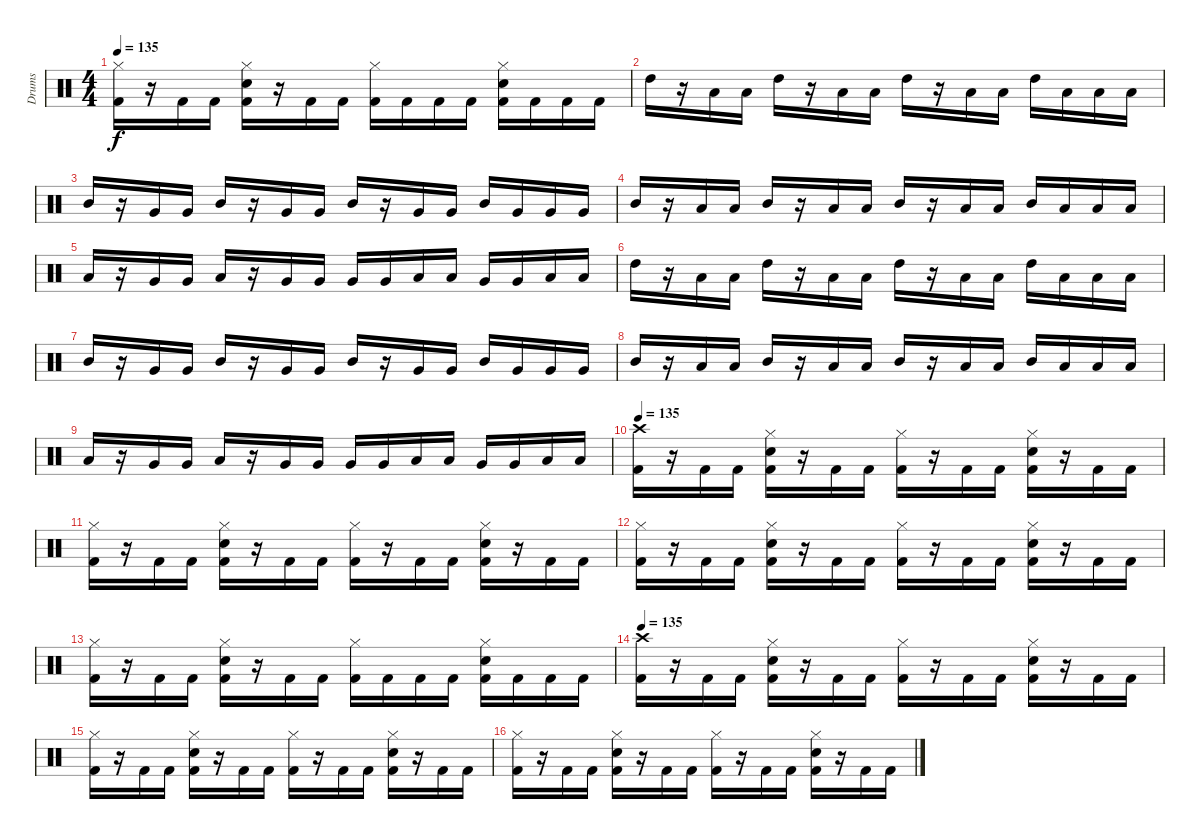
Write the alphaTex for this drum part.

\track ("Drums" "Drums") {instrument percussion}
\staff {score}
\articulation defaults
\ts (4 4)
\tempo 135
\clef neutral
\ks c
("Hi-Hat (closed)" "Kick (hit) 2").16{dy f} r.16 "Kick (hit) 2".16 "Kick (hit) 2".16 ("Hi-Hat (closed)" "Snare (hit) 2" "Kick (hit) 2").16 r.16 "Kick (hit) 2".16 "Kick (hit) 2".16 ("Hi-Hat (closed)" "Kick (hit) 2").16 "Kick (hit) 2".16 "Kick (hit) 2".16 "Kick (hit) 2".16 ("Hi-Hat (closed)" "Snare (hit) 2" "Kick (hit) 2").16 "Kick (hit) 2".16 "Kick (hit) 2".16 "Kick (hit) 2".16 |
"High Tom (hit)".16 r.16 "Low Tom (hit)".16 "Low Tom (hit)".16 "High Tom (hit)".16 r.16 "Low Tom (hit)".16 "Low Tom (hit)".16 "High Tom (hit)".16 r.16 "Low Tom (hit)".16 "Low Tom (hit)".16 "High Tom (hit)".16 "Low Tom (hit)".16 "Low Tom (hit)".16 "Low Tom (hit)".16 |
"Mid Tom (hit)".16 r.16 "Very Low Tom (hit)".16 "Very Low Tom (hit)".16 "Mid Tom (hit)".16 r.16 "Very Low Tom (hit)".16 "Very Low Tom (hit)".16 "Mid Tom (hit)".16 r.16 "Very Low Tom (hit)".16 "Very Low Tom (hit)".16 "Mid Tom (hit)".16 "Very Low Tom (hit)".16 "Very Low Tom (hit)".16 "Very Low Tom (hit)".16 |
"Mid Tom (hit)".16 r.16 "Low Tom (hit)".16 "Low Tom (hit)".16 "Mid Tom (hit)".16 r.16 "Low Tom (hit)".16 "Low Tom (hit)".16 "Mid Tom (hit)".16 r.16 "Low Tom (hit)".16 "Low Tom (hit)".16 "Mid Tom (hit)".16 "Low Tom (hit)".16 "Low Tom (hit)".16 "Low Tom (hit)".16 |
"Low Tom (hit)".16 r.16 "Very Low Tom (hit)".16 "Very Low Tom (hit)".16 "Low Tom (hit)".16 r.16 "Very Low Tom (hit)".16 "Very Low Tom (hit)".16 "Very Low Tom (hit)".16 "Very Low Tom (hit)".16 "Low Floor Tom (hit)".16 "Low Floor Tom (hit)".16 "Very Low Tom (hit)".16 "Very Low Tom (hit)".16 "Low Floor Tom (hit)".16 "Low Floor Tom (hit)".16 |
"High Tom (hit)".16 r.16 "Low Tom (hit)".16 "Low Tom (hit)".16 "High Tom (hit)".16 r.16 "Low Tom (hit)".16 "Low Tom (hit)".16 "High Tom (hit)".16 r.16 "Low Tom (hit)".16 "Low Tom (hit)".16 "High Tom (hit)".16 "Low Tom (hit)".16 "Low Tom (hit)".16 "Low Tom (hit)".16 |
"Mid Tom (hit)".16 r.16 "Very Low Tom (hit)".16 "Very Low Tom (hit)".16 "Mid Tom (hit)".16 r.16 "Very Low Tom (hit)".16 "Very Low Tom (hit)".16 "Mid Tom (hit)".16 r.16 "Very Low Tom (hit)".16 "Very Low Tom (hit)".16 "Mid Tom (hit)".16 "Very Low Tom (hit)".16 "Very Low Tom (hit)".16 "Very Low Tom (hit)".16 |
"Mid Tom (hit)".16 r.16 "Low Tom (hit)".16 "Low Tom (hit)".16 "Mid Tom (hit)".16 r.16 "Low Tom (hit)".16 "Low Tom (hit)".16 "Mid Tom (hit)".16 r.16 "Low Tom (hit)".16 "Low Tom (hit)".16 "Mid Tom (hit)".16 "Low Tom (hit)".16 "Low Tom (hit)".16 "Low Tom (hit)".16 |
"Low Tom (hit)".16 r.16 "Very Low Tom (hit)".16 "Very Low Tom (hit)".16 "Low Tom (hit)".16 r.16 "Very Low Tom (hit)".16 "Very Low Tom (hit)".16 "Very Low Tom (hit)".16 "Very Low Tom (hit)".16 "Low Floor Tom (hit)".16 "Low Floor Tom (hit)".16 "Very Low Tom (hit)".16 "Very Low Tom (hit)".16 "Low Floor Tom (hit)".16 "Low Floor Tom (hit)".16 |
\tempo 135
("Crash high (hit)" "Kick (hit) 2").16 r.16 "Kick (hit) 2".16 "Kick (hit) 2".16 ("Hi-Hat (closed)" "Snare (hit) 2" "Kick (hit) 2").16 r.16 "Kick (hit) 2".16 "Kick (hit) 2".16 ("Hi-Hat (closed)" "Kick (hit) 2").16 r.16 "Kick (hit) 2".16 "Kick (hit) 2".16 ("Hi-Hat (closed)" "Snare (hit) 2" "Kick (hit) 2").16 r.16 "Kick (hit) 2".16 "Kick (hit) 2".16 |
("Hi-Hat (closed)" "Kick (hit) 2").16 r.16 "Kick (hit) 2".16 "Kick (hit) 2".16 ("Hi-Hat (closed)" "Snare (hit) 2" "Kick (hit) 2").16 r.16 "Kick (hit) 2".16 "Kick (hit) 2".16 ("Hi-Hat (closed)" "Kick (hit) 2").16 r.16 "Kick (hit) 2".16 "Kick (hit) 2".16 ("Hi-Hat (closed)" "Snare (hit) 2" "Kick (hit) 2").16 r.16 "Kick (hit) 2".16 "Kick (hit) 2".16 |
("Hi-Hat (closed)" "Kick (hit) 2").16 r.16 "Kick (hit) 2".16 "Kick (hit) 2".16 ("Hi-Hat (closed)" "Snare (hit) 2" "Kick (hit) 2").16 r.16 "Kick (hit) 2".16 "Kick (hit) 2".16 ("Hi-Hat (closed)" "Kick (hit) 2").16 r.16 "Kick (hit) 2".16 "Kick (hit) 2".16 ("Hi-Hat (closed)" "Snare (hit) 2" "Kick (hit) 2").16 r.16 "Kick (hit) 2".16 "Kick (hit) 2".16 |
("Hi-Hat (closed)" "Kick (hit) 2").16 r.16 "Kick (hit) 2".16 "Kick (hit) 2".16 ("Hi-Hat (closed)" "Snare (hit) 2" "Kick (hit) 2").16 r.16 "Kick (hit) 2".16 "Kick (hit) 2".16 ("Hi-Hat (closed)" "Kick (hit) 2").16 "Kick (hit) 2".16 "Kick (hit) 2".16 "Kick (hit) 2".16 ("Hi-Hat (closed)" "Snare (hit) 2" "Kick (hit) 2").16 "Kick (hit) 2".16 "Kick (hit) 2".16 "Kick (hit) 2".16 |
\tempo 135
("Crash high (hit)" "Kick (hit) 2").16 r.16 "Kick (hit) 2".16 "Kick (hit) 2".16 ("Hi-Hat (closed)" "Snare (hit) 2" "Kick (hit) 2").16 r.16 "Kick (hit) 2".16 "Kick (hit) 2".16 ("Hi-Hat (closed)" "Kick (hit) 2").16 r.16 "Kick (hit) 2".16 "Kick (hit) 2".16 ("Hi-Hat (closed)" "Snare (hit) 2" "Kick (hit) 2").16 r.16 "Kick (hit) 2".16 "Kick (hit) 2".16 |
("Hi-Hat (closed)" "Kick (hit) 2").16 r.16 "Kick (hit) 2".16 "Kick (hit) 2".16 ("Hi-Hat (closed)" "Snare (hit) 2" "Kick (hit) 2").16 r.16 "Kick (hit) 2".16 "Kick (hit) 2".16 ("Hi-Hat (closed)" "Kick (hit) 2").16 r.16 "Kick (hit) 2".16 "Kick (hit) 2".16 ("Hi-Hat (closed)" "Snare (hit) 2" "Kick (hit) 2").16 r.16 "Kick (hit) 2".16 "Kick (hit) 2".16 |
("Hi-Hat (closed)" "Kick (hit) 2").16 r.16 "Kick (hit) 2".16 "Kick (hit) 2".16 ("Hi-Hat (closed)" "Snare (hit) 2" "Kick (hit) 2").16 r.16 "Kick (hit) 2".16 "Kick (hit) 2".16 ("Hi-Hat (closed)" "Kick (hit) 2").16 r.16 "Kick (hit) 2".16 "Kick (hit) 2".16 ("Hi-Hat (closed)" "Snare (hit) 2" "Kick (hit) 2").16 r.16 "Kick (hit) 2".16 "Kick (hit) 2".16
